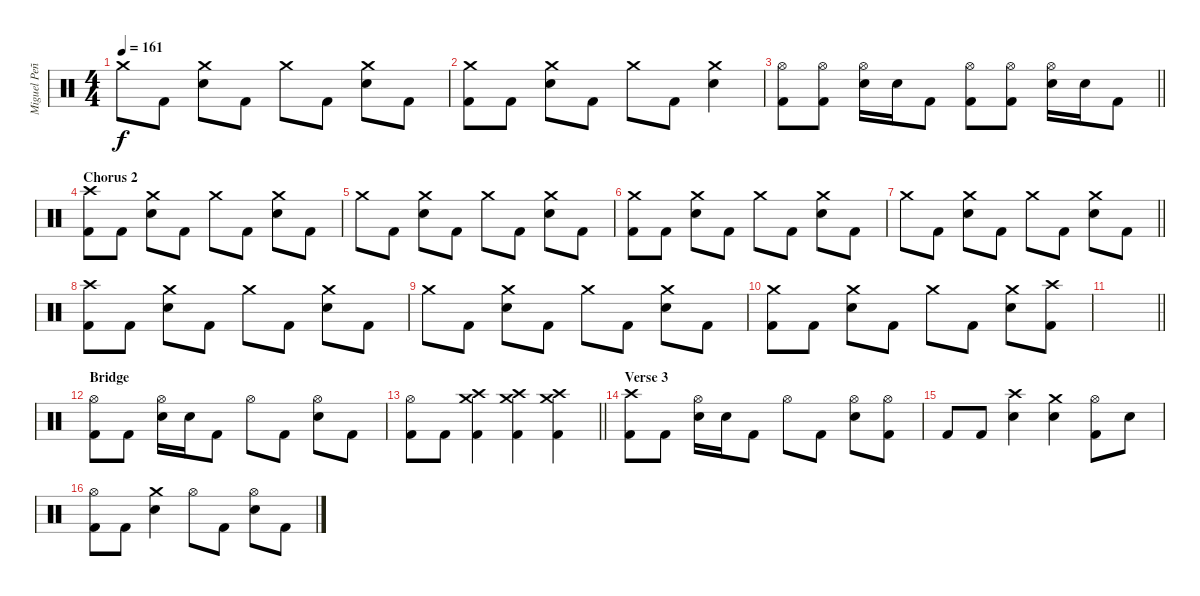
\track ("Miguel Peñas" "Miguel Peñ") {instrument percussion}
\staff {score}
\articulation defaults
\ts (4 4)
\tempo 161
\clef neutral
\ks c "Crash medium (hit)".8{dy f} "Kick (hit) 2".8
("Crash medium (hit)" "Electric Snare (hit)").8 "Kick (hit) 2".8 "Crash medium (hit)".8 "Kick (hit) 2".8 ("Crash medium (hit)" "Electric Snare (hit)").8 "Kick (hit) 2".8 |
("Crash medium (hit)" "Kick (hit) 2").8 "Kick (hit) 2".8 ("Crash medium (hit)" "Electric Snare (hit)").8 "Kick (hit) 2".8 "Crash medium (hit)".8 "Kick (hit) 2".8 ("Crash medium (hit)" "Electric Snare (hit)").4 |
\barLineRight lightlight
("Hi-Hat (open)" "Kick (hit) 2").8 ("Hi-Hat (open)" "Kick (hit) 2").8 ("Hi-Hat (open)" "Electric Snare (hit)").16 "Electric Snare (hit)".16 "Kick (hit) 2".8 ("Hi-Hat (open)" "Kick (hit) 2").8 ("Hi-Hat (open)" "Kick (hit) 2").8 ("Hi-Hat (open)" "Electric Snare (hit)").16 "Electric Snare (hit)".16 "Kick (hit) 2".8 |
\section ("" "Chorus 2")
("Crash high (hit)" "Kick (hit) 2").8 "Kick (hit) 2".8 ("Crash medium (hit)" "Electric Snare (hit)").8 "Kick (hit) 2".8 "Crash medium (hit)".8 "Kick (hit) 2".8 ("Crash medium (hit)" "Electric Snare (hit)").8 "Kick (hit) 2".8 |
"Crash medium (hit)".8 "Kick (hit) 2".8 ("Crash medium (hit)" "Electric Snare (hit)").8 "Kick (hit) 2".8 "Crash medium (hit)".8 "Kick (hit) 2".8 ("Crash medium (hit)" "Electric Snare (hit)").8 "Kick (hit) 2".8 |
("Crash medium (hit)" "Kick (hit) 2").8 "Kick (hit) 2".8 ("Crash medium (hit)" "Electric Snare (hit)").8 "Kick (hit) 2".8 "Crash medium (hit)".8 "Kick (hit) 2".8 ("Crash medium (hit)" "Electric Snare (hit)").8 "Kick (hit) 2".8 |
\barLineRight lightlight "Crash medium (hit)".8 "Kick (hit) 2".8
("Crash medium (hit)" "Electric Snare (hit)").8 "Kick (hit) 2".8 "Crash medium (hit)".8 "Kick (hit) 2".8 ("Crash medium (hit)" "Electric Snare (hit)").8 "Kick (hit) 2".8 |
("Crash high (hit)" "Kick (hit) 2").8 "Kick (hit) 2".8 ("Crash medium (hit)" "Electric Snare (hit)").8 "Kick (hit) 2".8 "Crash medium (hit)".8 "Kick (hit) 2".8 ("Crash medium (hit)" "Electric Snare (hit)").8 "Kick (hit) 2".8 |
"Crash medium (hit)".8 "Kick (hit) 2".8 ("Crash medium (hit)" "Electric Snare (hit)").8 "Kick (hit) 2".8 "Crash medium (hit)".8 "Kick (hit) 2".8 ("Crash medium (hit)" "Electric Snare (hit)").8 "Kick (hit) 2".8 |
("Crash medium (hit)" "Kick (hit) 2").8 "Kick (hit) 2".8 ("Crash medium (hit)" "Electric Snare (hit)").8 "Kick (hit) 2".8 "Crash medium (hit)".8 "Kick (hit) 2".8 ("Crash medium (hit)" "Electric Snare (hit)").8 ("Crash high (hit)" "Kick (hit) 2").8 |
\barLineRight lightlight
|
\section ("" "Bridge")
("Hi-Hat (open)" "Kick (hit) 2").8 "Kick (hit) 2".8 ("Hi-Hat (open)" "Electric Snare (hit)").16 "Electric Snare (hit)".16 "Kick (hit) 2".8 "Hi-Hat (open)".8 "Kick (hit) 2".8 ("Hi-Hat (open)" "Electric Snare (hit)").8 "Kick (hit) 2".8 |
\barLineRight lightlight
("Hi-Hat (open)" "Kick (hit) 2").8 "Kick (hit) 2".8 ("Crash high (hit)" "Crash medium (hit)" "Kick (hit) 2").4 ("Crash high (hit)" "Crash medium (hit)" "Kick (hit) 2").4 ("Crash high (hit)" "Crash medium (hit)" "Kick (hit) 2").4 |
\section ("" "Verse 3")
("Crash high (hit)" "Kick (hit) 2").8 "Kick (hit) 2".8 ("Hi-Hat (open)" "Electric Snare (hit)").16 "Electric Snare (hit)".16 "Kick (hit) 2".8 "Hi-Hat (open)".8 "Kick (hit) 2".8 ("Hi-Hat (open)" "Electric Snare (hit)").8 ("Hi-Hat (open)" "Kick (hit) 2").8 |
"Kick (hit) 2".8 "Kick (hit) 2".8 ("Crash high (hit)" "Electric Snare (hit)").4 ("Crash medium (hit)" "Electric Snare (hit)").4 ("Hi-Hat (open)" "Kick (hit) 2").8 "Electric Snare (hit)".8 |
("Hi-Hat (open)" "Kick (hit) 2").8 "Kick (hit) 2".8 ("Crash medium (hit)" "Electric Snare (hit)").4 "Hi-Hat (open)".8 "Kick (hit) 2".8 ("Hi-Hat (open)" "Electric Snare (hit)").8 "Kick (hit) 2".8
